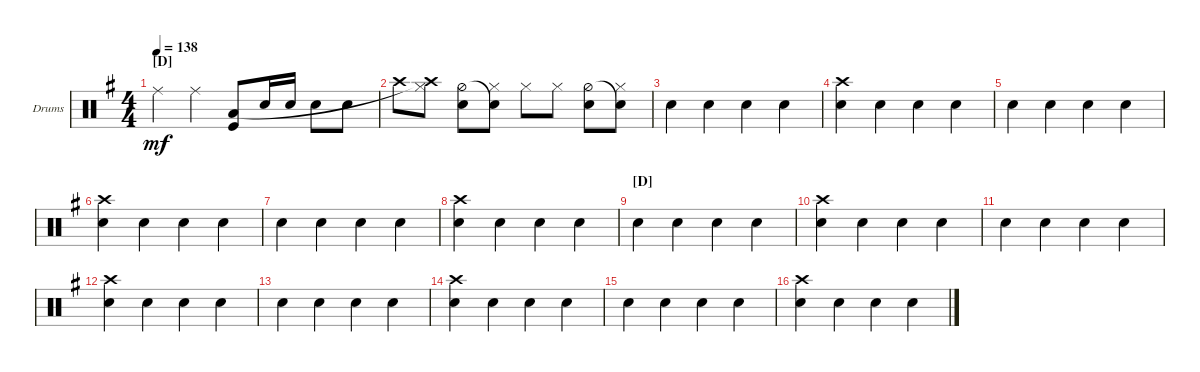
\defaultSystemsLayout 4
\bracketExtendMode groupsimilarinstruments
\firstSystemTrackNameOrientation horizontal
\otherSystemsTrackNameOrientation horizontal
\track ("Drumkit" "Drums") {instrument percussion}
\staff {score}
\articulation defaults
\ts (4 4)
\section ("D" "")
\tempo 138
\clef neutral
\ks g "Ride (middle)"{t}.4{dy mf} "Ride (middle)".4
("Kick (hit)" "Low Tom (hit)").8 "Snare (hit) 2".16 "Snare (hit) 2".16 "Snare (hit) 2".8 "Snare (hit) 2".8 |
"Crash high (hit)".8 ("Hi-Hat (closed)" "Crash high (hit)"{t}).8 ("Snare (hit) 2" "Hi-Hat (half)").8 ("Hi-Hat (closed)" "Snare (hit) 2"{t}).8 "Hi-Hat (closed)".8 "Hi-Hat (closed)".8 ("Snare (hit) 2" "Hi-Hat (half)").8 ("Hi-Hat (closed)" "Snare (hit) 2"{t}).8 |
"Snare (hit) 2".4 "Snare (hit) 2".4 "Snare (hit) 2".4 "Snare (hit) 2".4 |
("Snare (hit) 2" "Crash high (hit)").4 "Snare (hit) 2".4 "Snare (hit) 2".4 "Snare (hit) 2".4 |
"Snare (hit) 2".4 "Snare (hit) 2".4 "Snare (hit) 2".4 "Snare (hit) 2".4 |
("Snare (hit) 2" "Crash high (hit)").4 "Snare (hit) 2".4 "Snare (hit) 2".4 "Snare (hit) 2".4 |
"Snare (hit) 2".4 "Snare (hit) 2".4 "Snare (hit) 2".4 "Snare (hit) 2".4 |
("Snare (hit) 2" "Crash high (hit)").4 "Snare (hit) 2".4 "Snare (hit) 2".4 "Snare (hit) 2".4 |
\section ("D" "")
"Snare (hit) 2".4 "Snare (hit) 2".4 "Snare (hit) 2".4 "Snare (hit) 2".4 |
("Snare (hit) 2" "Crash high (hit)").4 "Snare (hit) 2".4 "Snare (hit) 2".4 "Snare (hit) 2".4 |
"Snare (hit) 2".4 "Snare (hit) 2".4 "Snare (hit) 2".4 "Snare (hit) 2".4 |
("Snare (hit) 2" "Crash high (hit)").4 "Snare (hit) 2".4 "Snare (hit) 2".4 "Snare (hit) 2".4 |
"Snare (hit) 2".4 "Snare (hit) 2".4 "Snare (hit) 2".4 "Snare (hit) 2".4 |
("Snare (hit) 2" "Crash high (hit)").4 "Snare (hit) 2".4 "Snare (hit) 2".4 "Snare (hit) 2".4 |
"Snare (hit) 2".4 "Snare (hit) 2".4 "Snare (hit) 2".4 "Snare (hit) 2".4 |
("Snare (hit) 2" "Crash high (hit)").4 "Snare (hit) 2".4 "Snare (hit) 2".4 "Snare (hit) 2".4
